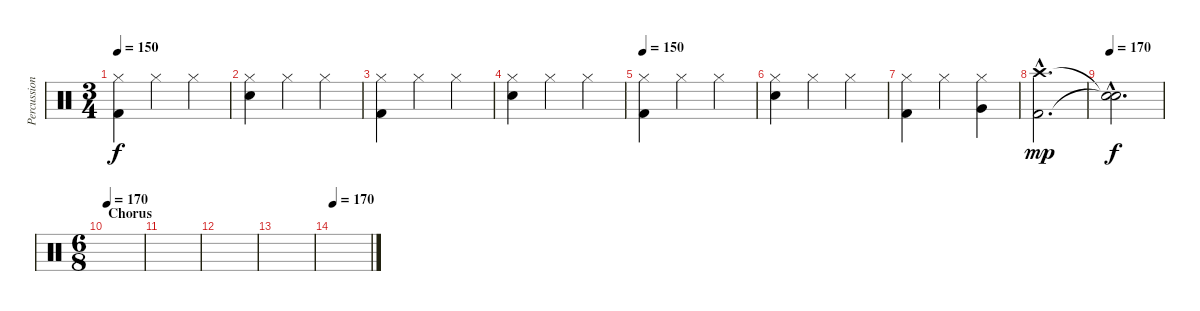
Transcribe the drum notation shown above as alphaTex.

\track ("Percussion" "Percussion") {instrument percussion}
\staff {score}
\articulation defaults
\ts (3 4)
\tempo 150
\clef neutral
\ks c
("Hi-Hat (closed)" "Kick (hit) 2").4{dy f} "Hi-Hat (closed)".4 "Hi-Hat (closed)".4 |
("Hi-Hat (closed)" "Electric Snare (hit)").4 "Hi-Hat (closed)".4 "Hi-Hat (closed)".4 |
("Hi-Hat (closed)" "Kick (hit) 2").4 "Hi-Hat (closed)".4 "Hi-Hat (closed)".4 |
("Hi-Hat (closed)" "Electric Snare (hit)").4 "Hi-Hat (closed)".4 "Hi-Hat (closed)".4 |
\tempo 150
("Hi-Hat (closed)" "Kick (hit) 2").4 "Hi-Hat (closed)".4 "Hi-Hat (closed)".4 |
("Hi-Hat (closed)" "Electric Snare (hit)").4 "Hi-Hat (closed)".4 "Hi-Hat (closed)".4 |
("Hi-Hat (closed)" "Kick (hit) 2").4 "Hi-Hat (closed)".4 ("Hi-Hat (closed)" "Very Low Tom (hit)").4 |
("Crash high (hit)"{hac} "Kick (hit) 2"{hac}).2{d dy mp} |
\tempo 170
("Snare (hit)"{hac t} "Snare (hit)"{hac t}).2{d dy f} |
\ts (6 8)
\section ("" "Chorus")
\tempo 170
|
|
|
|
\tempo 170
